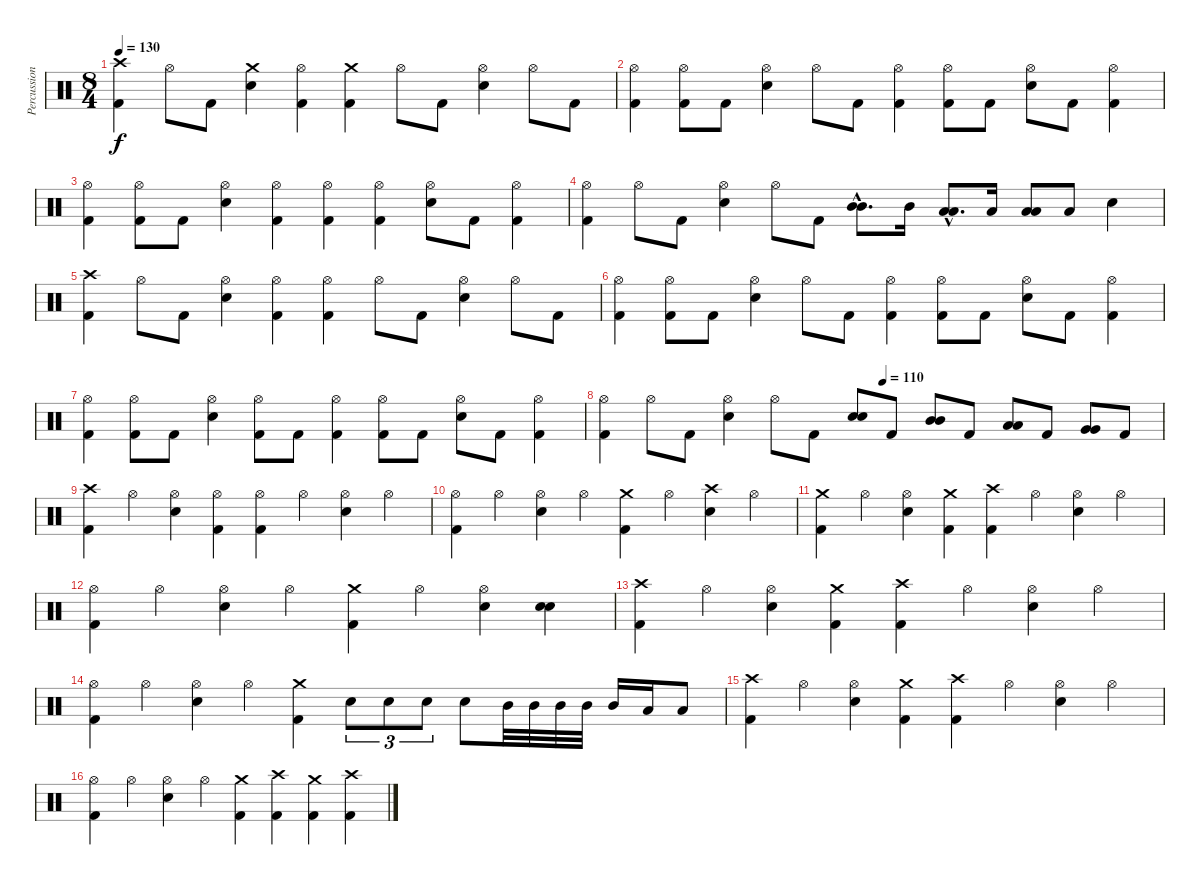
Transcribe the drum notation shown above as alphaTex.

\track ("Percussion" "Percussion") {instrument percussion}
\staff {score}
\articulation defaults
\ts (8 4)
\tempo 130
\clef neutral
\ks c
("Crash high (hit)" "Kick (hit) 2").4{dy f} "Hi-Hat (open)".8 "Kick (hit) 2".8 ("Crash medium (hit)" "Electric Snare (hit)").4 ("Hi-Hat (open)" "Kick (hit) 2").4 ("Crash medium (hit)" "Kick (hit) 2").4 "Hi-Hat (open)".8 "Kick (hit) 2".8 ("Hi-Hat (open)" "Electric Snare (hit)").4 "Hi-Hat (open)".8 "Kick (hit) 2".8 |
("Hi-Hat (open)" "Kick (hit) 2").4 ("Hi-Hat (open)" "Kick (hit) 2").8 "Kick (hit) 2".8 ("Hi-Hat (open)" "Electric Snare (hit)").4 "Hi-Hat (open)".8 "Kick (hit) 2".8 ("Hi-Hat (open)" "Kick (hit) 2").4 ("Hi-Hat (open)" "Kick (hit) 2").8 "Kick (hit) 2".8 ("Hi-Hat (open)" "Electric Snare (hit)").8 "Kick (hit) 2".8 ("Hi-Hat (open)" "Kick (hit) 2").4 |
("Hi-Hat (open)" "Kick (hit) 2").4 ("Hi-Hat (open)" "Kick (hit) 2").8 "Kick (hit) 2".8 ("Hi-Hat (open)" "Electric Snare (hit)").4 ("Hi-Hat (open)" "Kick (hit) 2").4 ("Hi-Hat (open)" "Kick (hit) 2").4 ("Hi-Hat (open)" "Kick (hit) 2").4 ("Hi-Hat (open)" "Electric Snare (hit)").8 "Kick (hit) 2".8 ("Hi-Hat (open)" "Kick (hit) 2").4 |
("Hi-Hat (open)" "Kick (hit) 2").4 "Hi-Hat (open)".8 "Kick (hit) 2".8 ("Hi-Hat (open)" "Electric Snare (hit)").4 "Hi-Hat (open)".8 "Kick (hit) 2".8 ("Mid Tom (hit)"{hac} "Mid Tom (hit)"{hac}).8{d bu 60} "Mid Tom (hit)".16 ("Low Tom (hit)"{hac} "Low Tom (hit)"{hac}).8{d bu 60} "Low Tom (hit)".16 ("Low Tom (hit)" "Low Tom (hit)").8{bu 60} "Low Tom (hit)".8 "Electric Snare (hit)".4 |
("Crash high (hit)" "Kick (hit) 2").4 "Hi-Hat (open)".8 "Kick (hit) 2".8 ("Hi-Hat (open)" "Electric Snare (hit)").4 ("Hi-Hat (open)" "Kick (hit) 2").4 ("Hi-Hat (open)" "Kick (hit) 2").4 "Hi-Hat (open)".8 "Kick (hit) 2".8 ("Hi-Hat (open)" "Electric Snare (hit)").4 "Hi-Hat (open)".8 "Kick (hit) 2".8 |
("Hi-Hat (open)" "Kick (hit) 2").4 ("Hi-Hat (open)" "Kick (hit) 2").8 "Kick (hit) 2".8 ("Hi-Hat (open)" "Electric Snare (hit)").4 "Hi-Hat (open)".8 "Kick (hit) 2".8 ("Hi-Hat (open)" "Kick (hit) 2").4 ("Hi-Hat (open)" "Kick (hit) 2").8 "Kick (hit) 2".8 ("Hi-Hat (open)" "Electric Snare (hit)").8 "Kick (hit) 2".8 ("Hi-Hat (open)" "Kick (hit) 2").4 |
("Hi-Hat (open)" "Kick (hit) 2").4 ("Hi-Hat (open)" "Kick (hit) 2").8 "Kick (hit) 2".8 ("Hi-Hat (open)" "Electric Snare (hit)").4 ("Hi-Hat (open)" "Kick (hit) 2").8 "Kick (hit) 2".8 ("Hi-Hat (open)" "Kick (hit) 2").4 ("Hi-Hat (open)" "Kick (hit) 2").8 "Kick (hit) 2".8 ("Hi-Hat (open)" "Electric Snare (hit)").8 "Kick (hit) 2".8 ("Hi-Hat (open)" "Kick (hit) 2").4 |
\tempo (110 0.5)
("Hi-Hat (open)" "Kick (hit) 2").4 "Hi-Hat (open)".8 "Kick (hit) 2".8 ("Hi-Hat (open)" "Electric Snare (hit)").4 "Hi-Hat (open)".8 "Kick (hit) 2".8 ("Electric Snare (hit)" "Electric Snare (hit)").8{bu 60} "Kick (hit) 2".8 ("Mid Tom (hit)" "Mid Tom (hit)").8{bu 60} "Kick (hit) 2".8 ("Low Tom (hit)" "Low Tom (hit)").8{bu 60} "Kick (hit) 2".8 ("Very Low Tom (hit)" "Very Low Tom (hit)").8{bu 60} "Kick (hit) 2".8 |
("Crash high (hit)" "Kick (hit) 2").4 "Hi-Hat (open)".4 ("Hi-Hat (open)" "Electric Snare (hit)").4 ("Hi-Hat (open)" "Kick (hit) 2").4 ("Hi-Hat (open)" "Kick (hit) 2").4 "Hi-Hat (open)".4 ("Hi-Hat (open)" "Electric Snare (hit)").4 "Hi-Hat (open)".4 |
("Hi-Hat (open)" "Kick (hit) 2").4 "Hi-Hat (open)".4 ("Hi-Hat (open)" "Electric Snare (hit)").4 "Hi-Hat (open)".4 ("Crash medium (hit)" "Kick (hit) 2").4 "Hi-Hat (open)".4 ("Crash high (hit)" "Electric Snare (hit)").4 "Hi-Hat (open)".4 |
("Crash medium (hit)" "Kick (hit) 2").4 "Hi-Hat (open)".4 ("Hi-Hat (open)" "Electric Snare (hit)").4 ("Crash medium (hit)" "Kick (hit) 2").4 ("Crash high (hit)" "Kick (hit) 2").4 "Hi-Hat (open)".4 ("Hi-Hat (open)" "Electric Snare (hit)").4 "Hi-Hat (open)".4 |
("Hi-Hat (open)" "Kick (hit) 2").4 "Hi-Hat (open)".4 ("Hi-Hat (open)" "Electric Snare (hit)").4 "Hi-Hat (open)".4 ("Crash medium (hit)" "Kick (hit) 2").4 "Hi-Hat (open)".4 ("Hi-Hat (open)" "Electric Snare (hit)").4 ("Electric Snare (hit)" "Electric Snare (hit)").4{bu 60} |
("Crash high (hit)" "Kick (hit) 2").4 "Hi-Hat (open)".4 ("Hi-Hat (open)" "Electric Snare (hit)").4 ("Crash medium (hit)" "Kick (hit) 2").4 ("Crash high (hit)" "Kick (hit) 2").4 "Hi-Hat (open)".4 ("Hi-Hat (open)" "Electric Snare (hit)").4 "Hi-Hat (open)".4 |
("Hi-Hat (open)" "Kick (hit) 2").4 "Hi-Hat (open)".4 ("Hi-Hat (open)" "Electric Snare (hit)").4 "Hi-Hat (open)".4 ("Crash medium (hit)" "Kick (hit) 2").4 "Electric Snare (hit)".8{tu (3 2)} "Electric Snare (hit)".8{tu (3 2)} "Electric Snare (hit)".8{tu (3 2)} "Electric Snare (hit)".8 "Mid Tom (hit)".32 "Mid Tom (hit)".32 "Mid Tom (hit)".32 "Mid Tom (hit)".32 "Mid Tom (hit)".16 "Low Tom (hit)".16 "Low Tom (hit)".8 |
("Crash high (hit)" "Kick (hit) 2").4 "Hi-Hat (open)".4 ("Hi-Hat (open)" "Electric Snare (hit)").4 ("Crash medium (hit)" "Kick (hit) 2").4 ("Crash high (hit)" "Kick (hit) 2").4 "Hi-Hat (open)".4 ("Hi-Hat (open)" "Electric Snare (hit)").4 "Hi-Hat (open)".4 |
("Hi-Hat (open)" "Kick (hit) 2").4 "Hi-Hat (open)".4 ("Hi-Hat (open)" "Electric Snare (hit)").4 "Hi-Hat (open)".4 ("Crash medium (hit)" "Kick (hit) 2").4 ("Crash high (hit)" "Kick (hit) 2").4 ("Crash medium (hit)" "Kick (hit) 2").4 ("Crash high (hit)" "Kick (hit) 2").4
